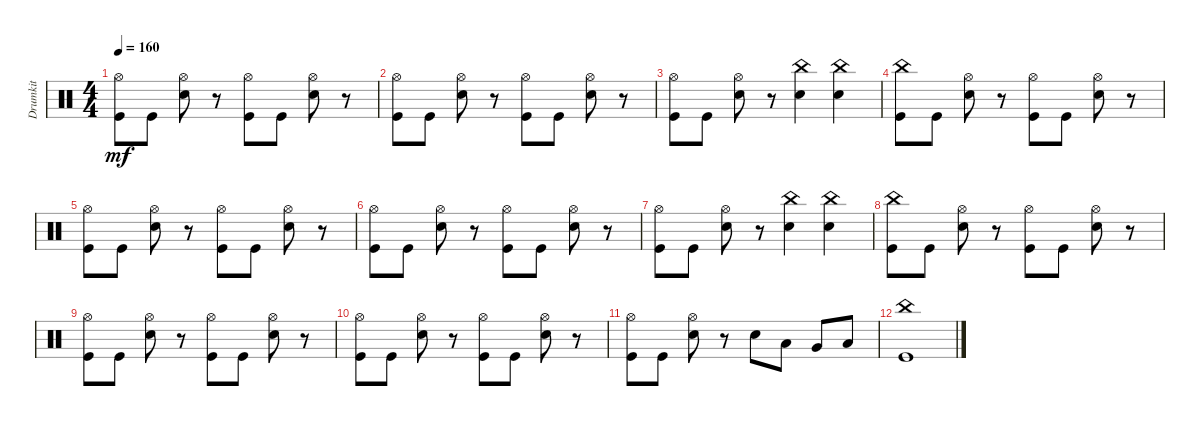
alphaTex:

\track ("Drumkit" "Drumkit") {instrument percussion}
\staff {score}
\articulation defaults
\ts (4 4)
\tempo 160
\clef neutral
\ks c
("Kick (hit)" "Hi-Hat (open)").8{dy mf} "Kick (hit)".8 ("Snare (hit) 2" "Hi-Hat (open)").8 r.8 ("Kick (hit)" "Hi-Hat (open)").8 "Kick (hit)".8 ("Snare (hit) 2" "Hi-Hat (open)").8 r.8 |
("Kick (hit)" "Hi-Hat (open)").8 "Kick (hit)".8 ("Snare (hit) 2" "Hi-Hat (open)").8 r.8 ("Kick (hit)" "Hi-Hat (open)").8 "Kick (hit)".8 ("Snare (hit) 2" "Hi-Hat (open)").8 r.8 |
("Kick (hit)" "Hi-Hat (open)").8 "Kick (hit)".8 ("Snare (hit) 2" "Hi-Hat (open)").8 r.8 ("Snare (hit) 2" "China (hit)").4 ("Snare (hit) 2" "China (hit)").4 |
("Kick (hit)" "China (hit)").8 "Kick (hit)".8 ("Snare (hit) 2" "Hi-Hat (open)").8 r.8 ("Kick (hit)" "Hi-Hat (open)").8 "Kick (hit)".8 ("Snare (hit) 2" "Hi-Hat (open)").8 r.8 |
("Kick (hit)" "Hi-Hat (open)").8 "Kick (hit)".8 ("Snare (hit) 2" "Hi-Hat (open)").8 r.8 ("Kick (hit)" "Hi-Hat (open)").8 "Kick (hit)".8 ("Snare (hit) 2" "Hi-Hat (open)").8 r.8 |
("Kick (hit)" "Hi-Hat (open)").8 "Kick (hit)".8 ("Snare (hit) 2" "Hi-Hat (open)").8 r.8 ("Kick (hit)" "Hi-Hat (open)").8 "Kick (hit)".8 ("Snare (hit) 2" "Hi-Hat (open)").8 r.8 |
("Kick (hit)" "Hi-Hat (open)").8 "Kick (hit)".8 ("Snare (hit) 2" "Hi-Hat (open)").8 r.8 ("Snare (hit) 2" "China (hit)").4 ("Snare (hit) 2" "China (hit)").4 |
("Kick (hit)" "China (hit)").8 "Kick (hit)".8 ("Snare (hit) 2" "Hi-Hat (open)").8 r.8 ("Kick (hit)" "Hi-Hat (open)").8 "Kick (hit)".8 ("Snare (hit) 2" "Hi-Hat (open)").8 r.8 |
("Kick (hit)" "Hi-Hat (open)").8 "Kick (hit)".8 ("Snare (hit) 2" "Hi-Hat (open)").8 r.8 ("Kick (hit)" "Hi-Hat (open)").8 "Kick (hit)".8 ("Snare (hit) 2" "Hi-Hat (open)").8 r.8 |
("Kick (hit)" "Hi-Hat (open)").8 "Kick (hit)".8 ("Snare (hit) 2" "Hi-Hat (open)").8 r.8 ("Kick (hit)" "Hi-Hat (open)").8 "Kick (hit)".8 ("Snare (hit) 2" "Hi-Hat (open)").8 r.8 |
("Kick (hit)" "Hi-Hat (open)").8 "Kick (hit)".8 ("Snare (hit) 2" "Hi-Hat (open)").8 r.8 "Snare (hit) 2".8 "Low Tom (hit)".8 "Very Low Tom (hit)".8 "Low Floor Tom (hit)".8 |
("Kick (hit)" "China (hit)").1
